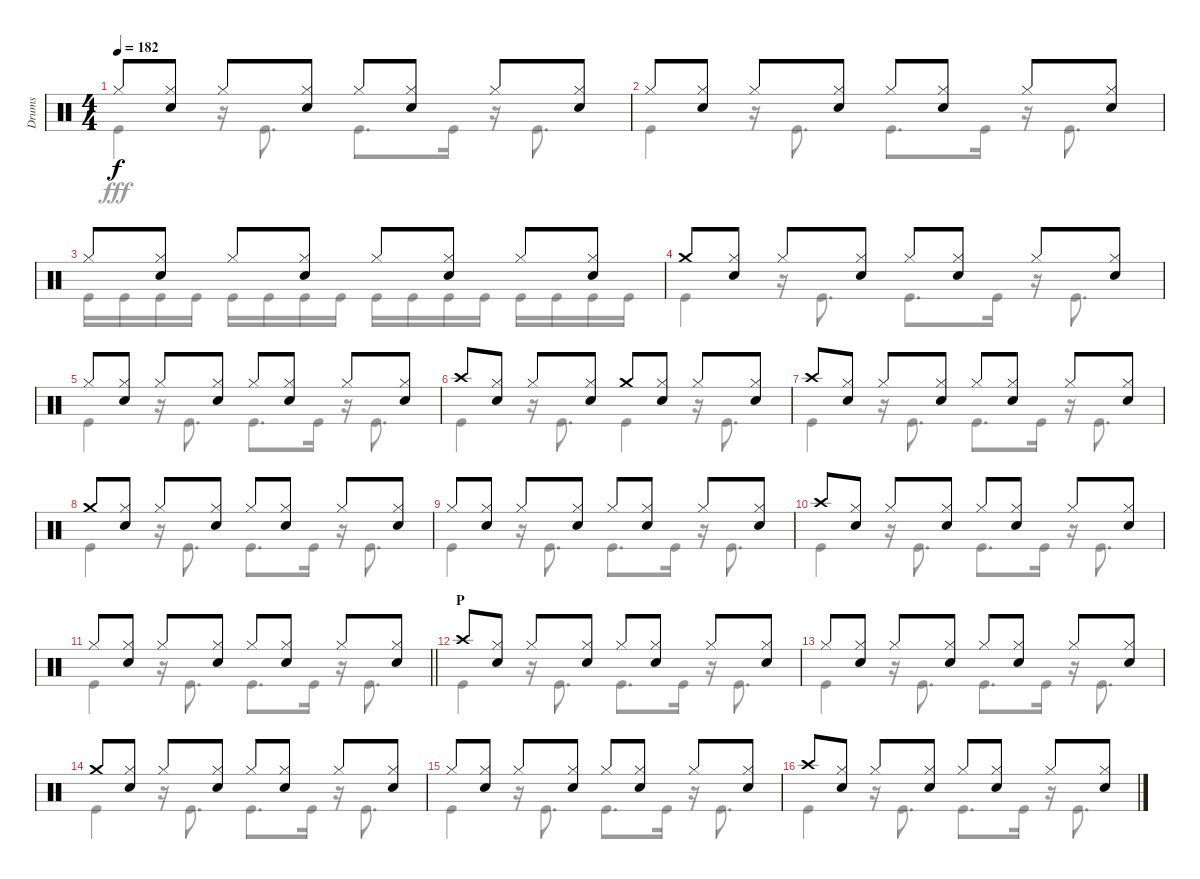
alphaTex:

\track ("Drums" "Drums") {instrument percussion}
\staff {score}
\articulation defaults
\voice
\ts (4 4)
\tempo 182
\clef neutral
\ks c "Hi-Hat (closed)".8{dy f}
("Hi-Hat (closed)" "Snare (hit) 2").8 "Hi-Hat (closed)".8 ("Hi-Hat (closed)" "Snare (hit) 2").8 "Hi-Hat (closed)".8 ("Hi-Hat (closed)" "Snare (hit) 2").8 "Hi-Hat (closed)".8 ("Hi-Hat (closed)" "Snare (hit) 2").8 |
"Hi-Hat (closed)".8 ("Hi-Hat (closed)" "Snare (hit) 2").8 "Hi-Hat (closed)".8 ("Hi-Hat (closed)" "Snare (hit) 2").8 "Hi-Hat (closed)".8 ("Hi-Hat (closed)" "Snare (hit) 2").8 "Hi-Hat (closed)".8 ("Hi-Hat (closed)" "Snare (hit) 2").8 |
"Hi-Hat (closed)".8 ("Hi-Hat (closed)" "Snare (hit) 2").8 "Hi-Hat (closed)".8 ("Hi-Hat (closed)" "Snare (hit) 2").8 "Hi-Hat (closed)".8 ("Hi-Hat (closed)" "Snare (hit) 2").8 "Hi-Hat (closed)".8 ("Hi-Hat (closed)" "Snare (hit) 2").8 |
"Crash medium (hit)".8 ("Hi-Hat (closed)" "Snare (hit) 2").8 "Hi-Hat (closed)".8 ("Hi-Hat (closed)" "Snare (hit) 2").8 "Hi-Hat (closed)".8 ("Hi-Hat (closed)" "Snare (hit) 2").8 "Hi-Hat (closed)".8 ("Hi-Hat (closed)" "Snare (hit) 2").8 |
"Hi-Hat (closed)".8 ("Hi-Hat (closed)" "Snare (hit) 2").8 "Hi-Hat (closed)".8 ("Hi-Hat (closed)" "Snare (hit) 2").8 "Hi-Hat (closed)".8 ("Hi-Hat (closed)" "Snare (hit) 2").8 "Hi-Hat (closed)".8 ("Hi-Hat (closed)" "Snare (hit) 2").8 |
"Crash high (hit)".8 ("Hi-Hat (closed)" "Snare (hit) 2").8 "Hi-Hat (closed)".8 ("Hi-Hat (closed)" "Snare (hit) 2").8 "Crash medium (hit)".8 ("Hi-Hat (closed)" "Snare (hit) 2").8 "Hi-Hat (closed)".8 ("Hi-Hat (closed)" "Snare (hit) 2").8 |
"Crash high (hit)".8 ("Hi-Hat (closed)" "Snare (hit) 2").8 "Hi-Hat (closed)".8 ("Hi-Hat (closed)" "Snare (hit) 2").8 "Hi-Hat (closed)".8 ("Hi-Hat (closed)" "Snare (hit) 2").8 "Hi-Hat (closed)".8 ("Hi-Hat (closed)" "Snare (hit) 2").8 |
"Crash medium (hit)".8 ("Hi-Hat (closed)" "Snare (hit) 2").8 "Hi-Hat (closed)".8 ("Hi-Hat (closed)" "Snare (hit) 2").8 "Hi-Hat (closed)".8 ("Hi-Hat (closed)" "Snare (hit) 2").8 "Hi-Hat (closed)".8 ("Hi-Hat (closed)" "Snare (hit) 2").8 |
"Hi-Hat (closed)".8 ("Hi-Hat (closed)" "Snare (hit) 2").8 "Hi-Hat (closed)".8 ("Hi-Hat (closed)" "Snare (hit) 2").8 "Hi-Hat (closed)".8 ("Hi-Hat (closed)" "Snare (hit) 2").8 "Hi-Hat (closed)".8 ("Hi-Hat (closed)" "Snare (hit) 2").8 |
"Crash high (hit)".8 ("Hi-Hat (closed)" "Snare (hit) 2").8 "Hi-Hat (closed)".8 ("Hi-Hat (closed)" "Snare (hit) 2").8 "Hi-Hat (closed)".8 ("Hi-Hat (closed)" "Snare (hit) 2").8 "Hi-Hat (closed)".8 ("Hi-Hat (closed)" "Snare (hit) 2").8 |
\barLineRight lightlight "Hi-Hat (closed)".8
("Hi-Hat (closed)" "Snare (hit) 2").8 "Hi-Hat (closed)".8 ("Hi-Hat (closed)" "Snare (hit) 2").8 "Hi-Hat (closed)".8 ("Hi-Hat (closed)" "Snare (hit) 2").8 "Hi-Hat (closed)".8 ("Hi-Hat (closed)" "Snare (hit) 2").8 |
\section ("" "P")
"Crash high (hit)".8 ("Hi-Hat (closed)" "Snare (hit) 2").8 "Hi-Hat (closed)".8 ("Hi-Hat (closed)" "Snare (hit) 2").8 "Hi-Hat (closed)".8 ("Hi-Hat (closed)" "Snare (hit) 2").8 "Hi-Hat (closed)".8 ("Hi-Hat (closed)" "Snare (hit) 2").8 |
"Hi-Hat (closed)".8 ("Hi-Hat (closed)" "Snare (hit) 2").8 "Hi-Hat (closed)".8 ("Hi-Hat (closed)" "Snare (hit) 2").8 "Hi-Hat (closed)".8 ("Hi-Hat (closed)" "Snare (hit) 2").8 "Hi-Hat (closed)".8 ("Hi-Hat (closed)" "Snare (hit) 2").8 |
"Crash medium (hit)".8 ("Hi-Hat (closed)" "Snare (hit) 2").8 "Hi-Hat (closed)".8 ("Hi-Hat (closed)" "Snare (hit) 2").8 "Hi-Hat (closed)".8 ("Hi-Hat (closed)" "Snare (hit) 2").8 "Hi-Hat (closed)".8 ("Hi-Hat (closed)" "Snare (hit) 2").8 |
"Hi-Hat (closed)".8 ("Hi-Hat (closed)" "Snare (hit) 2").8 "Hi-Hat (closed)".8 ("Hi-Hat (closed)" "Snare (hit) 2").8 "Hi-Hat (closed)".8 ("Hi-Hat (closed)" "Snare (hit) 2").8 "Hi-Hat (closed)".8 ("Hi-Hat (closed)" "Snare (hit) 2").8 |
"Crash high (hit)".8 ("Hi-Hat (closed)" "Snare (hit) 2").8 "Hi-Hat (closed)".8 ("Hi-Hat (closed)" "Snare (hit) 2").8 "Hi-Hat (closed)".8 ("Hi-Hat (closed)" "Snare (hit) 2").8 "Hi-Hat (closed)".8 ("Hi-Hat (closed)" "Snare (hit) 2").8
\voice
\clef neutral
\ottava regular
\simile none
\ks c "Kick (hit)".4{dy fff}
r.16 "Kick (hit)".8{d} "Kick (hit)".8{d} "Kick (hit)".16 r.16 "Kick (hit)".8{d} |
"Kick (hit)".4 r.16 "Kick (hit)".8{d} "Kick (hit)".8{d} "Kick (hit)".16 r.16 "Kick (hit)".8{d} |
"Kick (hit)".16 "Kick (hit)".16 "Kick (hit)".16 "Kick (hit)".16 "Kick (hit)".16 "Kick (hit)".16 "Kick (hit)".16 "Kick (hit)".16 "Kick (hit)".16 "Kick (hit)".16 "Kick (hit)".16 "Kick (hit)".16 "Kick (hit)".16 "Kick (hit)".16 "Kick (hit)".16 "Kick (hit)".16 |
"Kick (hit)".4 r.16 "Kick (hit)".8{d} "Kick (hit)".8{d} "Kick (hit)".16 r.16 "Kick (hit)".8{d} |
"Kick (hit)".4 r.16 "Kick (hit)".8{d} "Kick (hit)".8{d} "Kick (hit)".16 r.16 "Kick (hit)".8{d} |
"Kick (hit)".4 r.16 "Kick (hit)".8{d} "Kick (hit)".4 r.16 "Kick (hit)".8{d} |
"Kick (hit)".4 r.16 "Kick (hit)".8{d} "Kick (hit)".8{d} "Kick (hit)".16 r.16 "Kick (hit)".8{d} |
"Kick (hit)".4 r.16 "Kick (hit)".8{d} "Kick (hit)".8{d} "Kick (hit)".16 r.16 "Kick (hit)".8{d} |
"Kick (hit)".4 r.16 "Kick (hit)".8{d} "Kick (hit)".8{d} "Kick (hit)".16 r.16 "Kick (hit)".8{d} |
"Kick (hit)".4 r.16 "Kick (hit)".8{d} "Kick (hit)".8{d} "Kick (hit)".16 r.16 "Kick (hit)".8{d} |
\barLineRight lightlight "Kick (hit)".4
r.16 "Kick (hit)".8{d} "Kick (hit)".8{d} "Kick (hit)".16 r.16 "Kick (hit)".8{d} |
"Kick (hit)".4 r.16 "Kick (hit)".8{d} "Kick (hit)".8{d} "Kick (hit)".16 r.16 "Kick (hit)".8{d} |
"Kick (hit)".4 r.16 "Kick (hit)".8{d} "Kick (hit)".8{d} "Kick (hit)".16 r.16 "Kick (hit)".8{d} |
"Kick (hit)".4 r.16 "Kick (hit)".8{d} "Kick (hit)".8{d} "Kick (hit)".16 r.16 "Kick (hit)".8{d} |
"Kick (hit)".4 r.16 "Kick (hit)".8{d} "Kick (hit)".8{d} "Kick (hit)".16 r.16 "Kick (hit)".8{d} |
"Kick (hit)".4 r.16 "Kick (hit)".8{d} "Kick (hit)".8{d} "Kick (hit)".16 r.16 "Kick (hit)".8{d}
